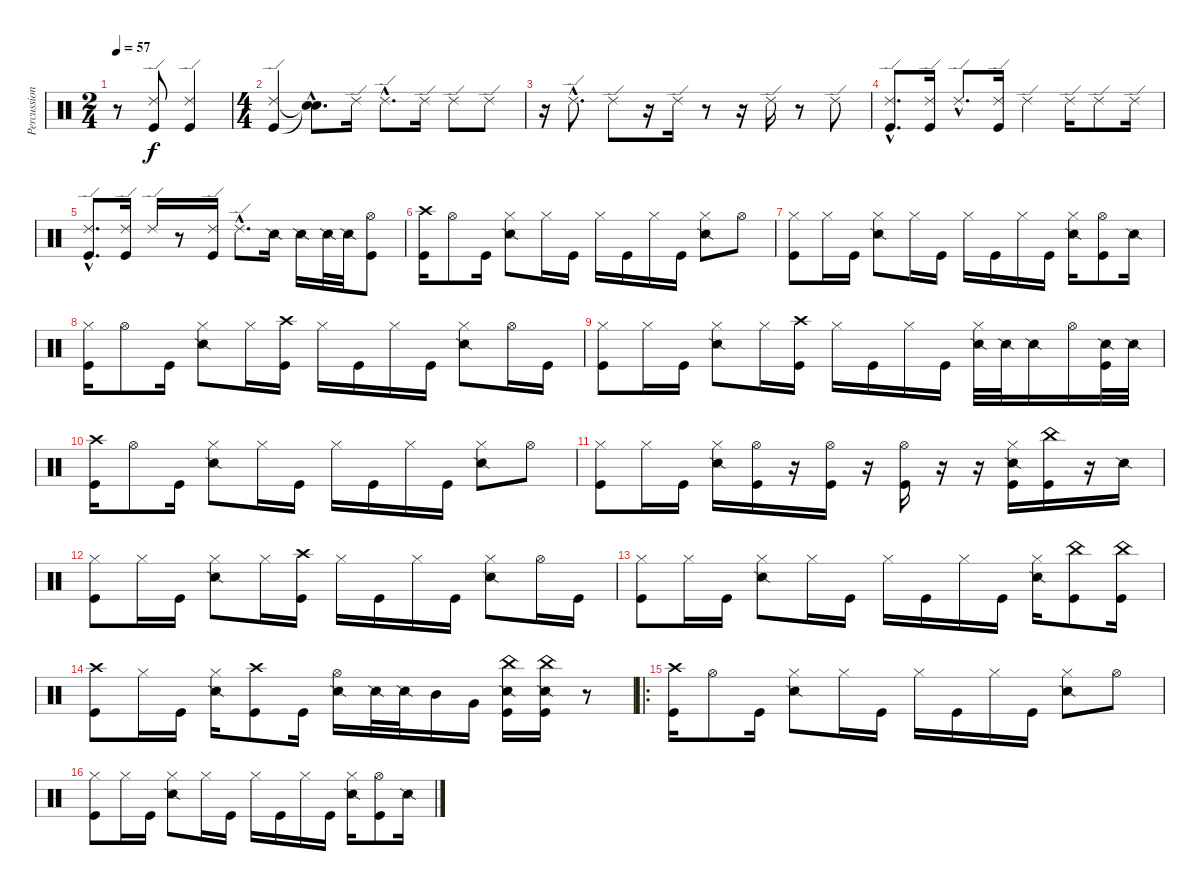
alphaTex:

\track ("Percussion" "Percussion") {instrument percussion}
\staff {score}
\articulation defaults
\ts (2 4)
\tempo 57
\clef neutral
\ks c
r.8{dy f} ("Ride (edge) 2" "Kick (hit)").8 ("Ride (edge) 2" "Kick (hit)").4 |
\ts (4 4)
("Ride (edge) 2" "Kick (hit)").4 ("Snare (hit)"{hac t} "Snare (hit)"{hac t}).8{d} "Ride (edge) 2".16 "Ride (edge) 2"{hac}.8{d} "Ride (edge) 2".16 "Ride (edge) 2".8 "Ride (edge) 2".8 |
r.16 "Ride (edge) 2"{hac}.8{d} "Ride (edge) 2".8 r.16 "Ride (edge) 2".16 r.8 r.16 "Ride (edge) 2".16 r.8 "Ride (edge) 2".8 |
("Ride (edge) 2"{hac} "Kick (hit)"{hac}).8{d} ("Ride (edge) 2" "Kick (hit)").16 "Ride (edge) 2"{hac}.8{d} ("Ride (edge) 2" "Kick (hit)").16 "Ride (edge) 2".4 "Ride (edge) 2".16 "Ride (edge) 2".8 "Ride (edge) 2".16 |
("Ride (edge) 2"{hac} "Kick (hit)"{hac}).8{d} ("Ride (edge) 2" "Kick (hit)").16 "Ride (edge) 2".16 r.8 ("Ride (edge) 2" "Kick (hit)").16 "Ride (edge) 2"{hac}.8{d} "Snare (side stick) 2".16 "Snare (side stick) 2".16 "Snare (side stick) 2".32 "Snare (side stick) 2".32 ("Hi-Hat (open)" "Kick (hit)").8 |
("Crash high (hit)" "Kick (hit)").16 "Hi-Hat (open)".8 "Kick (hit)".16 ("Hi-Hat (closed)" "Snare (side stick) 2").8 "Hi-Hat (closed)".16 "Kick (hit)".16 "Hi-Hat (closed)".16 "Kick (hit)".16 "Hi-Hat (closed)".16 "Kick (hit)".16 ("Hi-Hat (closed)" "Snare (side stick) 2").8 "Hi-Hat (open)".8 |
("Hi-Hat (closed)" "Kick (hit)").8 "Hi-Hat (closed)".16 "Kick (hit)".16 ("Hi-Hat (closed)" "Snare (side stick) 2").8 "Hi-Hat (closed)".16 "Kick (hit)".16 "Hi-Hat (closed)".16 "Kick (hit)".16 "Hi-Hat (closed)".16 "Kick (hit)".16 ("Hi-Hat (closed)" "Snare (side stick) 2").16 ("Hi-Hat (open)" "Kick (hit)").8 "Snare (side stick) 2".16 |
("Hi-Hat (closed)" "Kick (hit)").16 "Hi-Hat (open)".8 "Kick (hit)".16 ("Hi-Hat (closed)" "Snare (side stick) 2").8 "Hi-Hat (closed)".16 ("Crash high (hit)" "Kick (hit)").16 "Hi-Hat (closed)".16 "Kick (hit)".16 "Hi-Hat (closed)".16 "Kick (hit)".16 ("Hi-Hat (closed)" "Snare (side stick) 2").8 "Hi-Hat (open)".16 "Kick (hit)".16 |
("Hi-Hat (closed)" "Kick (hit)").8 "Hi-Hat (closed)".16 "Kick (hit)".16 ("Hi-Hat (closed)" "Snare (side stick) 2").8 "Hi-Hat (closed)".16 ("Crash high (hit)" "Kick (hit)").16 "Hi-Hat (closed)".16 "Kick (hit)".16 "Hi-Hat (closed)".16 "Kick (hit)".16 ("Hi-Hat (closed)" "Snare (side stick) 2").32 "Snare (side stick) 2".32 "Snare (side stick) 2".16 "Hi-Hat (open)".16 ("Snare (side stick) 2" "Kick (hit)").32 "Snare (side stick) 2".32 |
("Crash high (hit)" "Kick (hit)").16 "Hi-Hat (open)".8 "Kick (hit)".16 ("Hi-Hat (closed)" "Snare (side stick) 2").8 "Hi-Hat (closed)".16 "Kick (hit)".16 "Hi-Hat (closed)".16 "Kick (hit)".16 "Hi-Hat (closed)".16 "Kick (hit)".16 ("Hi-Hat (closed)" "Snare (side stick) 2").8 "Hi-Hat (open)".8 |
("Hi-Hat (closed)" "Kick (hit)").8 "Hi-Hat (closed)".16 "Kick (hit)".16 ("Hi-Hat (closed)" "Snare (side stick) 2").16 ("Hi-Hat (open)" "Kick (hit)").16 r.16 ("Hi-Hat (open)" "Kick (hit)").16 r.16 ("Hi-Hat (open)" "Kick (hit)").16 r.16 r.16 ("Hi-Hat (closed)" "Snare (side stick) 2" "Kick (hit)").16 ("China (hit)" "Kick (hit)").16 r.16 "Snare (side stick) 2".16 |
("Hi-Hat (closed)" "Kick (hit)").8 "Hi-Hat (closed)".16 "Kick (hit)".16 ("Hi-Hat (closed)" "Snare (side stick) 2").8 "Hi-Hat (closed)".16 ("Crash high (hit)" "Kick (hit)").16 "Hi-Hat (closed)".16 "Kick (hit)".16 "Hi-Hat (closed)".16 "Kick (hit)".16 ("Hi-Hat (closed)" "Snare (side stick) 2").8 "Hi-Hat (open)".16 "Kick (hit)".16 |
("Hi-Hat (closed)" "Kick (hit)").8 "Hi-Hat (closed)".16 "Kick (hit)".16 ("Hi-Hat (closed)" "Snare (side stick) 2").8 "Hi-Hat (closed)".16 "Kick (hit)".16 "Hi-Hat (closed)".16 "Kick (hit)".16 "Hi-Hat (closed)".16 "Kick (hit)".16 ("Hi-Hat (closed)" "Snare (side stick) 2").16 ("China (hit)" "Kick (hit)").8 ("China (hit)" "Kick (hit)").16 |
("Crash high (hit)" "Kick (hit)").8 "Hi-Hat (closed)".16 "Kick (hit)".16 ("Hi-Hat (closed)" "Snare (side stick) 2").16 ("Crash high (hit)" "Kick (hit)").8 "Kick (hit)".16 ("Hi-Hat (open)" "Snare (side stick) 2").16 "Snare (side stick) 2".32 "Snare (side stick) 2".32 "Mid Tom (hit)".16 "Very Low Tom (hit)".16 ("China (hit)" "Snare (side stick) 2" "Kick (hit)").16 ("China (hit)" "Snare (side stick) 2" "Kick (hit)").16 r.8 |
\ro
("Crash high (hit)" "Kick (hit)").16 "Hi-Hat (open)".8 "Kick (hit)".16 ("Hi-Hat (closed)" "Snare (side stick) 2").8 "Hi-Hat (closed)".16 "Kick (hit)".16 "Hi-Hat (closed)".16 "Kick (hit)".16 "Hi-Hat (closed)".16 "Kick (hit)".16 ("Hi-Hat (closed)" "Snare (side stick) 2").8 "Hi-Hat (open)".8 |
("Hi-Hat (closed)" "Kick (hit)").8 "Hi-Hat (closed)".16 "Kick (hit)".16 ("Hi-Hat (closed)" "Snare (side stick) 2").8 "Hi-Hat (closed)".16 "Kick (hit)".16 "Hi-Hat (closed)".16 "Kick (hit)".16 "Hi-Hat (closed)".16 "Kick (hit)".16 ("Hi-Hat (closed)" "Snare (side stick) 2").16 ("Hi-Hat (open)" "Kick (hit)").8 "Snare (side stick) 2".16
